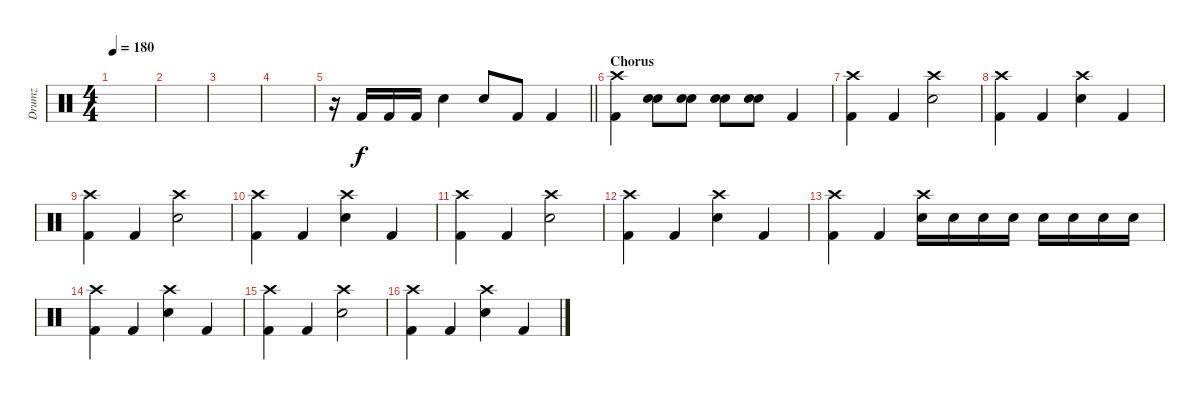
\track ("Drumz" "Drumz") {instrument percussion}
\staff {score}
\articulation defaults
\ts (4 4)
\tempo 180
\clef neutral
\ks c
|
|
|
|
\barLineRight lightlight
r.16 "Kick (hit) 2".16 "Kick (hit) 2".16 "Kick (hit) 2".16 "Snare (hit) 2".4 "Snare (hit) 2".8 "Kick (hit) 2".8 "Kick (hit) 2".4 |
\section ("" "Chorus")
("Kick (hit) 2" "Crash high (hit)").4 ("Electric Snare (hit)" "Electric Snare (hit)").8 ("Electric Snare (hit)" "Electric Snare (hit)").8 ("Electric Snare (hit)" "Electric Snare (hit)").8 ("Electric Snare (hit)" "Electric Snare (hit)").8 "Kick (hit) 2".4 |
("Crash high (hit)" "Kick (hit) 2").4 "Kick (hit) 2".4 ("Crash high (hit)" "Snare (hit) 2").2 |
("Kick (hit) 2" "Crash high (hit)").4 "Kick (hit) 2".4 ("Snare (hit) 2" "Crash high (hit)").4 "Kick (hit) 2".4 |
("Crash high (hit)" "Kick (hit) 2").4 "Kick (hit) 2".4 ("Crash high (hit)" "Snare (hit) 2").2 |
("Kick (hit) 2" "Crash high (hit)").4 "Kick (hit) 2".4 ("Snare (hit) 2" "Crash high (hit)").4 "Kick (hit) 2".4 |
("Crash high (hit)" "Kick (hit) 2").4 "Kick (hit) 2".4 ("Crash high (hit)" "Snare (hit) 2").2 |
("Kick (hit) 2" "Crash high (hit)").4 "Kick (hit) 2".4 ("Snare (hit) 2" "Crash high (hit)").4 "Kick (hit) 2".4 |
("Crash high (hit)" "Kick (hit) 2").4 "Kick (hit) 2".4 ("Crash high (hit)" "Electric Snare (hit)").16 "Electric Snare (hit)".16 "Electric Snare (hit)".16 "Electric Snare (hit)".16 "Electric Snare (hit)".16 "Electric Snare (hit)".16 "Electric Snare (hit)".16 "Electric Snare (hit)".16 |
("Kick (hit) 2" "Crash high (hit)").4 "Kick (hit) 2".4 ("Snare (hit) 2" "Crash high (hit)").4 "Kick (hit) 2".4 |
("Crash high (hit)" "Kick (hit) 2").4 "Kick (hit) 2".4 ("Crash high (hit)" "Snare (hit) 2").2 |
("Kick (hit) 2" "Crash high (hit)").4 "Kick (hit) 2".4 ("Snare (hit) 2" "Crash high (hit)").4 "Kick (hit) 2".4
